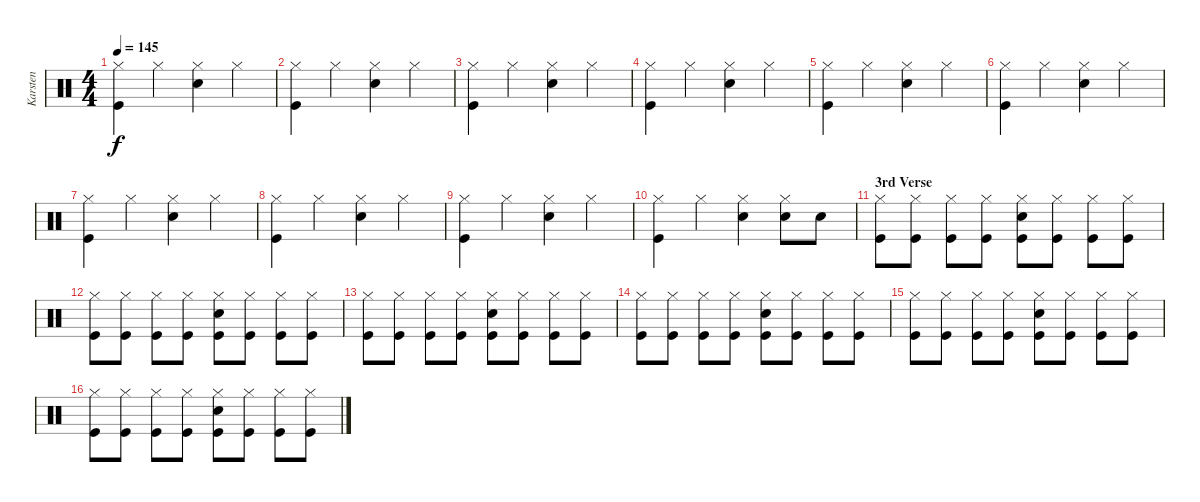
\track ("Karsten" "Karsten") {instrument percussion}
\staff {score}
\articulation defaults
\ts (4 4)
\tempo 145
\clef neutral
\ks c
("Hi-Hat (closed)" "Kick (hit)").4{dy f} "Hi-Hat (closed)".4 ("Hi-Hat (closed)" "Snare (hit) 2").4 "Hi-Hat (closed)".4 |
("Hi-Hat (closed)" "Kick (hit)").4 "Hi-Hat (closed)".4 ("Hi-Hat (closed)" "Snare (hit) 2").4 "Hi-Hat (closed)".4 |
("Hi-Hat (closed)" "Kick (hit)").4 "Hi-Hat (closed)".4 ("Hi-Hat (closed)" "Snare (hit) 2").4 "Hi-Hat (closed)".4 |
("Hi-Hat (closed)" "Kick (hit)").4 "Hi-Hat (closed)".4 ("Hi-Hat (closed)" "Snare (hit) 2").4 "Hi-Hat (closed)".4 |
("Hi-Hat (closed)" "Kick (hit)").4 "Hi-Hat (closed)".4 ("Hi-Hat (closed)" "Snare (hit) 2").4 "Hi-Hat (closed)".4 |
("Hi-Hat (closed)" "Kick (hit)").4 "Hi-Hat (closed)".4 ("Hi-Hat (closed)" "Snare (hit) 2").4 "Hi-Hat (closed)".4 |
("Hi-Hat (closed)" "Kick (hit)").4 "Hi-Hat (closed)".4 ("Hi-Hat (closed)" "Snare (hit) 2").4 "Hi-Hat (closed)".4 |
("Hi-Hat (closed)" "Kick (hit)").4 "Hi-Hat (closed)".4 ("Hi-Hat (closed)" "Snare (hit) 2").4 "Hi-Hat (closed)".4 |
("Hi-Hat (closed)" "Kick (hit)").4 "Hi-Hat (closed)".4 ("Hi-Hat (closed)" "Snare (hit) 2").4 "Hi-Hat (closed)".4 |
("Hi-Hat (closed)" "Kick (hit)").4 "Hi-Hat (closed)".4 ("Hi-Hat (closed)" "Snare (hit) 2").4 ("Hi-Hat (closed)" "Snare (hit) 2").8 "Snare (hit) 2".8 |
\section ("" "3rd Verse")
("Hi-Hat (closed)" "Kick (hit)").8 ("Hi-Hat (closed)" "Kick (hit)").8 ("Hi-Hat (closed)" "Kick (hit)").8 ("Hi-Hat (closed)" "Kick (hit)").8 ("Hi-Hat (closed)" "Snare (hit) 2" "Kick (hit)").8 ("Hi-Hat (closed)" "Kick (hit)").8 ("Hi-Hat (closed)" "Kick (hit)").8 ("Hi-Hat (closed)" "Kick (hit)").8 |
("Hi-Hat (closed)" "Kick (hit)").8 ("Hi-Hat (closed)" "Kick (hit)").8 ("Hi-Hat (closed)" "Kick (hit)").8 ("Hi-Hat (closed)" "Kick (hit)").8 ("Hi-Hat (closed)" "Snare (hit) 2" "Kick (hit)").8 ("Hi-Hat (closed)" "Kick (hit)").8 ("Hi-Hat (closed)" "Kick (hit)").8 ("Hi-Hat (closed)" "Kick (hit)").8 |
("Hi-Hat (closed)" "Kick (hit)").8 ("Hi-Hat (closed)" "Kick (hit)").8 ("Hi-Hat (closed)" "Kick (hit)").8 ("Hi-Hat (closed)" "Kick (hit)").8 ("Hi-Hat (closed)" "Snare (hit) 2" "Kick (hit)").8 ("Hi-Hat (closed)" "Kick (hit)").8 ("Hi-Hat (closed)" "Kick (hit)").8 ("Hi-Hat (closed)" "Kick (hit)").8 |
("Hi-Hat (closed)" "Kick (hit)").8 ("Hi-Hat (closed)" "Kick (hit)").8 ("Hi-Hat (closed)" "Kick (hit)").8 ("Hi-Hat (closed)" "Kick (hit)").8 ("Hi-Hat (closed)" "Snare (hit) 2" "Kick (hit)").8 ("Hi-Hat (closed)" "Kick (hit)").8 ("Hi-Hat (closed)" "Kick (hit)").8 ("Hi-Hat (closed)" "Kick (hit)").8 |
("Hi-Hat (closed)" "Kick (hit)").8 ("Hi-Hat (closed)" "Kick (hit)").8 ("Hi-Hat (closed)" "Kick (hit)").8 ("Hi-Hat (closed)" "Kick (hit)").8 ("Hi-Hat (closed)" "Snare (hit) 2" "Kick (hit)").8 ("Hi-Hat (closed)" "Kick (hit)").8 ("Hi-Hat (closed)" "Kick (hit)").8 ("Hi-Hat (closed)" "Kick (hit)").8 |
("Hi-Hat (closed)" "Kick (hit)").8 ("Hi-Hat (closed)" "Kick (hit)").8 ("Hi-Hat (closed)" "Kick (hit)").8 ("Hi-Hat (closed)" "Kick (hit)").8 ("Hi-Hat (closed)" "Snare (hit) 2" "Kick (hit)").8 ("Hi-Hat (closed)" "Kick (hit)").8 ("Hi-Hat (closed)" "Kick (hit)").8 ("Hi-Hat (closed)" "Kick (hit)").8
